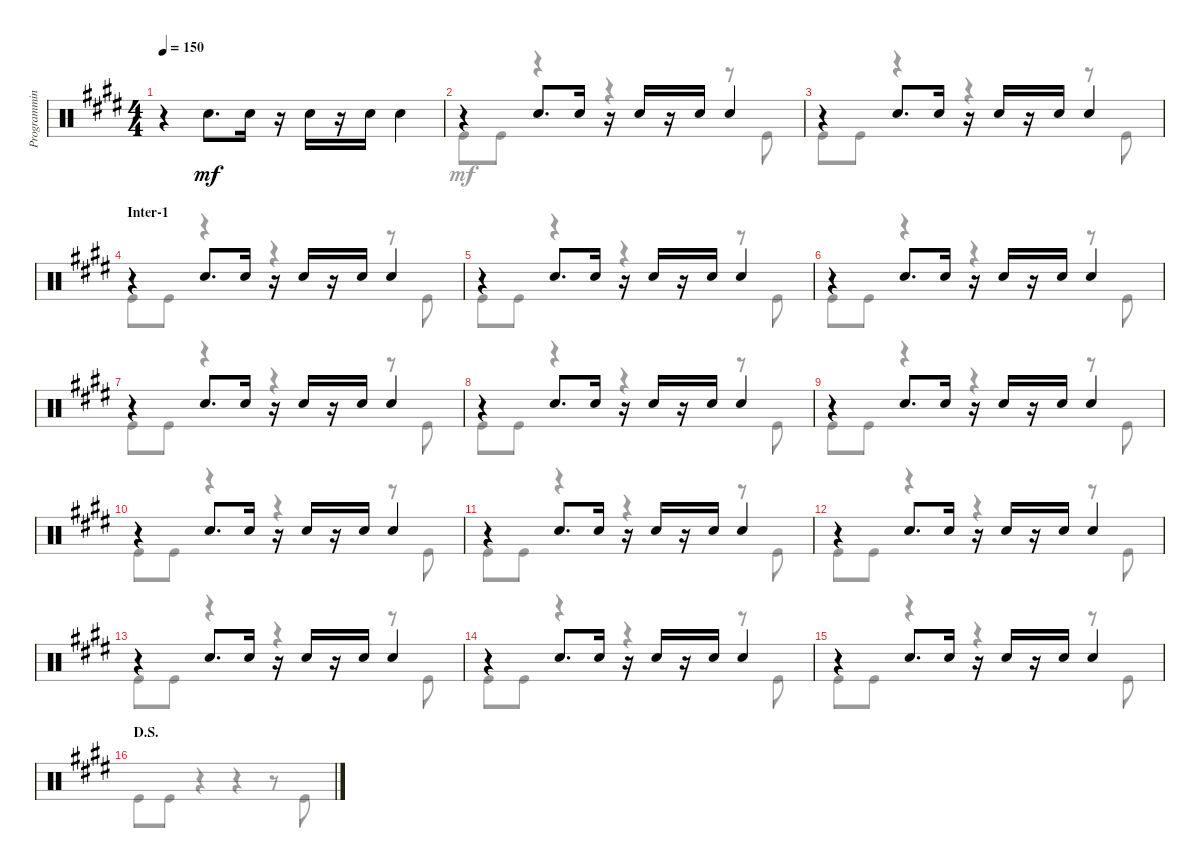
\track ("Programming" "Programmin") {instrument percussion}
\staff {score}
\articulation defaults
\voice
\ts (4 4)
\tempo 150
\clef neutral
\ks e
r.4{dy mf} "Snare (hit) 2".8{d} "Snare (hit) 2".16 r.16 "Snare (hit) 2".16 r.16 "Snare (hit) 2".16 "Snare (hit) 2".4 |
r.4 "Snare (hit) 2".8{d} "Snare (hit) 2".16 r.16 "Snare (hit) 2".16 r.16 "Snare (hit) 2".16 "Snare (hit) 2".4 |
r.4 "Snare (hit) 2".8{d} "Snare (hit) 2".16 r.16 "Snare (hit) 2".16 r.16 "Snare (hit) 2".16 "Snare (hit) 2".4 |
\section ("" "Inter-1")
r.4 "Snare (hit) 2".8{d} "Snare (hit) 2".16 r.16 "Snare (hit) 2".16 r.16 "Snare (hit) 2".16 "Snare (hit) 2".4 |
r.4 "Snare (hit) 2".8{d} "Snare (hit) 2".16 r.16 "Snare (hit) 2".16 r.16 "Snare (hit) 2".16 "Snare (hit) 2".4 |
r.4 "Snare (hit) 2".8{d} "Snare (hit) 2".16 r.16 "Snare (hit) 2".16 r.16 "Snare (hit) 2".16 "Snare (hit) 2".4 |
r.4 "Snare (hit) 2".8{d} "Snare (hit) 2".16 r.16 "Snare (hit) 2".16 r.16 "Snare (hit) 2".16 "Snare (hit) 2".4 |
r.4 "Snare (hit) 2".8{d} "Snare (hit) 2".16 r.16 "Snare (hit) 2".16 r.16 "Snare (hit) 2".16 "Snare (hit) 2".4 |
r.4 "Snare (hit) 2".8{d} "Snare (hit) 2".16 r.16 "Snare (hit) 2".16 r.16 "Snare (hit) 2".16 "Snare (hit) 2".4 |
r.4 "Snare (hit) 2".8{d} "Snare (hit) 2".16 r.16 "Snare (hit) 2".16 r.16 "Snare (hit) 2".16 "Snare (hit) 2".4 |
r.4 "Snare (hit) 2".8{d} "Snare (hit) 2".16 r.16 "Snare (hit) 2".16 r.16 "Snare (hit) 2".16 "Snare (hit) 2".4 |
r.4 "Snare (hit) 2".8{d} "Snare (hit) 2".16 r.16 "Snare (hit) 2".16 r.16 "Snare (hit) 2".16 "Snare (hit) 2".4 |
r.4 "Snare (hit) 2".8{d} "Snare (hit) 2".16 r.16 "Snare (hit) 2".16 r.16 "Snare (hit) 2".16 "Snare (hit) 2".4 |
r.4 "Snare (hit) 2".8{d} "Snare (hit) 2".16 r.16 "Snare (hit) 2".16 r.16 "Snare (hit) 2".16 "Snare (hit) 2".4 |
r.4 "Snare (hit) 2".8{d} "Snare (hit) 2".16 r.16 "Snare (hit) 2".16 r.16 "Snare (hit) 2".16 "Snare (hit) 2".4 |
\section ("" "D.S.")
\voice
\clef neutral
\ottava regular
\simile none
\ks e "Kick (hit)".8{dy mf} "Kick (hit)".8
r.4 r.4 r.8 "Kick (hit)".8 |
"Kick (hit)".8 "Kick (hit)".8 r.4 r.4 r.8 "Kick (hit)".8 |
"Kick (hit)".8 "Kick (hit)".8 r.4 r.4 r.8 "Kick (hit)".8 |
"Kick (hit)".8 "Kick (hit)".8 r.4 r.4 r.8 "Kick (hit)".8 |
"Kick (hit)".8 "Kick (hit)".8 r.4 r.4 r.8 "Kick (hit)".8 |
"Kick (hit)".8 "Kick (hit)".8 r.4 r.4 r.8 "Kick (hit)".8 |
"Kick (hit)".8 "Kick (hit)".8 r.4 r.4 r.8 "Kick (hit)".8 |
"Kick (hit)".8 "Kick (hit)".8 r.4 r.4 r.8 "Kick (hit)".8 |
"Kick (hit)".8 "Kick (hit)".8 r.4 r.4 r.8 "Kick (hit)".8 |
"Kick (hit)".8 "Kick (hit)".8 r.4 r.4 r.8 "Kick (hit)".8 |
"Kick (hit)".8 "Kick (hit)".8 r.4 r.4 r.8 "Kick (hit)".8 |
"Kick (hit)".8 "Kick (hit)".8 r.4 r.4 r.8 "Kick (hit)".8 |
"Kick (hit)".8 "Kick (hit)".8 r.4 r.4 r.8 "Kick (hit)".8 |
"Kick (hit)".8 "Kick (hit)".8 r.4 r.4 r.8 "Kick (hit)".8 |
"Kick (hit)".8 "Kick (hit)".8 r.4 r.4 r.8 "Kick (hit)".8 |
